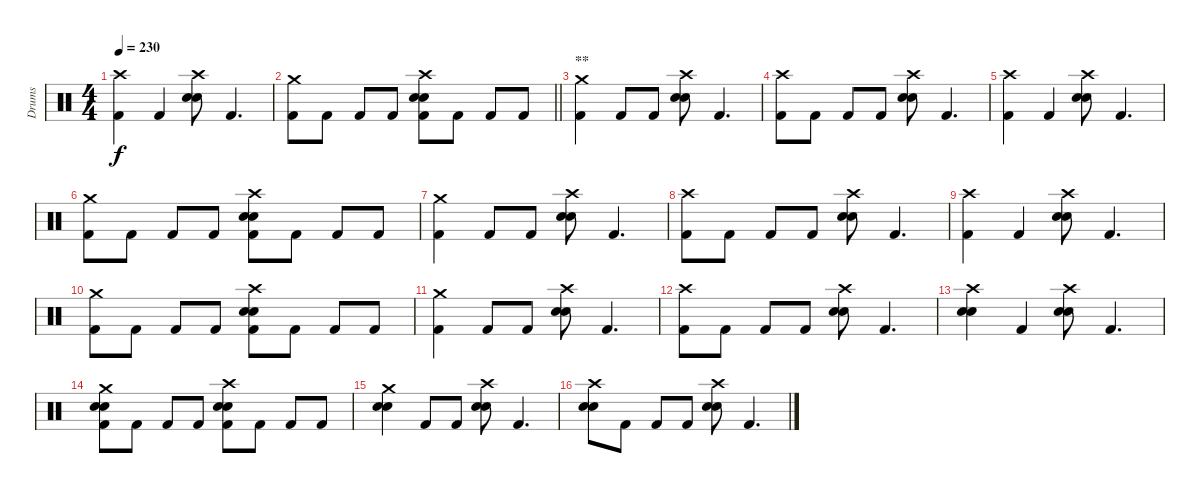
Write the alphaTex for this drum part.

\track ("Drums" "Drums") {instrument percussion}
\staff {score}
\articulation defaults
\ts (4 4)
\tempo 230
\clef neutral
\ks c
("Crash high (hit)" "Kick (hit) 2").4{dy f} "Kick (hit) 2".4 ("Crash high (hit)" "Electric Snare (hit)" "Electric Snare (hit)").8 "Kick (hit) 2".4{d} |
\barLineRight lightlight
("Crash medium (hit)" "Kick (hit) 2").8 "Kick (hit) 2".8 "Kick (hit) 2".8 "Kick (hit) 2".8 ("Crash high (hit)" "Electric Snare (hit)" "Electric Snare (hit)" "Kick (hit) 2").8 "Kick (hit) 2".8 "Kick (hit) 2".8 "Kick (hit) 2".8 |
\section ("" "**")
("Crash medium (hit)" "Kick (hit) 2").4 "Kick (hit) 2".8 "Kick (hit) 2".8 ("Crash high (hit)" "Electric Snare (hit)" "Electric Snare (hit)").8 "Kick (hit) 2".4{d} |
("Crash high (hit)" "Kick (hit) 2").8 "Kick (hit) 2".8 "Kick (hit) 2".8 "Kick (hit) 2".8 ("Crash high (hit)" "Electric Snare (hit)" "Electric Snare (hit)").8 "Kick (hit) 2".4{d} |
("Crash high (hit)" "Kick (hit) 2").4 "Kick (hit) 2".4 ("Crash high (hit)" "Electric Snare (hit)" "Electric Snare (hit)").8 "Kick (hit) 2".4{d} |
("Crash medium (hit)" "Kick (hit) 2").8 "Kick (hit) 2".8 "Kick (hit) 2".8 "Kick (hit) 2".8 ("Crash high (hit)" "Electric Snare (hit)" "Electric Snare (hit)" "Kick (hit) 2").8 "Kick (hit) 2".8 "Kick (hit) 2".8 "Kick (hit) 2".8 |
("Crash medium (hit)" "Kick (hit) 2").4 "Kick (hit) 2".8 "Kick (hit) 2".8 ("Crash high (hit)" "Electric Snare (hit)" "Electric Snare (hit)").8 "Kick (hit) 2".4{d} |
("Crash high (hit)" "Kick (hit) 2").8 "Kick (hit) 2".8 "Kick (hit) 2".8 "Kick (hit) 2".8 ("Crash high (hit)" "Electric Snare (hit)" "Electric Snare (hit)").8 "Kick (hit) 2".4{d} |
("Crash high (hit)" "Kick (hit) 2").4 "Kick (hit) 2".4 ("Crash high (hit)" "Electric Snare (hit)" "Electric Snare (hit)").8 "Kick (hit) 2".4{d} |
("Crash medium (hit)" "Kick (hit) 2").8 "Kick (hit) 2".8 "Kick (hit) 2".8 "Kick (hit) 2".8 ("Crash high (hit)" "Electric Snare (hit)" "Electric Snare (hit)" "Kick (hit) 2").8 "Kick (hit) 2".8 "Kick (hit) 2".8 "Kick (hit) 2".8 |
("Crash medium (hit)" "Kick (hit) 2").4 "Kick (hit) 2".8 "Kick (hit) 2".8 ("Crash high (hit)" "Electric Snare (hit)" "Electric Snare (hit)").8 "Kick (hit) 2".4{d} |
("Crash high (hit)" "Kick (hit) 2").8 "Kick (hit) 2".8 "Kick (hit) 2".8 "Kick (hit) 2".8 ("Crash high (hit)" "Electric Snare (hit)" "Electric Snare (hit)").8 "Kick (hit) 2".4{d} |
("Crash high (hit)" "Electric Snare (hit)" "Electric Snare (hit)").4 "Kick (hit) 2".4 ("Crash high (hit)" "Electric Snare (hit)" "Electric Snare (hit)").8 "Kick (hit) 2".4{d} |
("Crash medium (hit)" "Electric Snare (hit)" "Electric Snare (hit)" "Kick (hit) 2").8 "Kick (hit) 2".8 "Kick (hit) 2".8 "Kick (hit) 2".8 ("Crash high (hit)" "Electric Snare (hit)" "Electric Snare (hit)" "Kick (hit) 2").8 "Kick (hit) 2".8 "Kick (hit) 2".8 "Kick (hit) 2".8 |
("Crash medium (hit)" "Electric Snare (hit)" "Electric Snare (hit)").4 "Kick (hit) 2".8 "Kick (hit) 2".8 ("Crash high (hit)" "Electric Snare (hit)" "Electric Snare (hit)").8 "Kick (hit) 2".4{d} |
("Crash high (hit)" "Electric Snare (hit)" "Electric Snare (hit)").8 "Kick (hit) 2".8 "Kick (hit) 2".8 "Kick (hit) 2".8 ("Crash high (hit)" "Electric Snare (hit)" "Electric Snare (hit)").8 "Kick (hit) 2".4{d}
